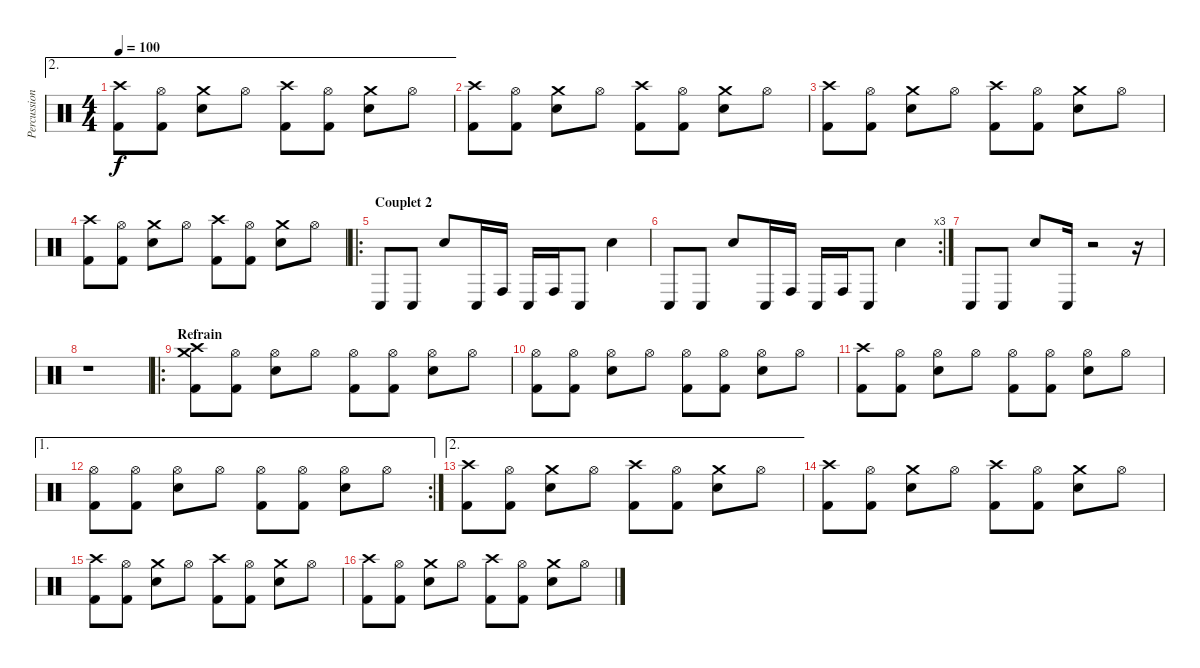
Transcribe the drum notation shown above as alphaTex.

\track ("Percussions" "Percussion") {instrument percussion}
\staff {score}
\articulation defaults
\ae 2
\ts (4 4)
\tempo 100
\clef neutral
\ks c
("Crash high (hit)" "Kick (hit) 2").8{dy f} ("Hi-Hat (open)" "Kick (hit) 2").8 ("Crash medium (hit)" "Electric Snare (hit)").8 "Hi-Hat (open)".8 ("Crash high (hit)" "Kick (hit) 2").8 ("Hi-Hat (open)" "Kick (hit) 2").8 ("Crash medium (hit)" "Electric Snare (hit)").8 "Hi-Hat (open)".8 |
("Crash high (hit)" "Kick (hit) 2").8 ("Hi-Hat (open)" "Kick (hit) 2").8 ("Crash medium (hit)" "Electric Snare (hit)").8 "Hi-Hat (open)".8 ("Crash high (hit)" "Kick (hit) 2").8 ("Hi-Hat (open)" "Kick (hit) 2").8 ("Crash medium (hit)" "Electric Snare (hit)").8 "Hi-Hat (open)".8 |
("Crash high (hit)" "Kick (hit) 2").8 ("Hi-Hat (open)" "Kick (hit) 2").8 ("Crash medium (hit)" "Electric Snare (hit)").8 "Hi-Hat (open)".8 ("Crash high (hit)" "Kick (hit) 2").8 ("Hi-Hat (open)" "Kick (hit) 2").8 ("Crash medium (hit)" "Electric Snare (hit)").8 "Hi-Hat (open)".8 |
("Crash high (hit)" "Kick (hit) 2").8 ("Hi-Hat (open)" "Kick (hit) 2").8 ("Crash medium (hit)" "Electric Snare (hit)").8 "Hi-Hat (open)".8 ("Crash high (hit)" "Kick (hit) 2").8 ("Hi-Hat (open)" "Kick (hit) 2").8 ("Crash medium (hit)" "Electric Snare (hit)").8 "Hi-Hat (open)".8 |
\ro
\section ("" "Couplet 2 ")
"Conga low (hit)".8{volume 8} "Conga low (hit)".8 "Electric Snare (hit)".8 "Conga low (hit)".16 "Conga high (hit)".16 "Conga low (hit)".16 "Conga high (hit)".16 "Conga low (hit)".8 "Electric Snare (hit)".4 |
\rc 3 "Conga low (hit)".8 "Conga low (hit)".8 "Electric Snare (hit)".8 "Conga low (hit)".16 "Conga high (hit)".16 "Conga low (hit)".16 "Conga high (hit)".16 "Conga low (hit)".8 "Electric Snare (hit)".4
|
"Conga low (hit)".8 "Conga low (hit)".8 "Electric Snare (hit)".8 "Conga low (hit)".16 r.2 r.16 |
r.1 |
\ro
\section ("" "Refrain")
("Crash high (hit)" "Crash medium (hit)" "Kick (hit) 2").8{volume 13} ("Hi-Hat (open)" "Kick (hit) 2").8 ("Hi-Hat (open)" "Electric Snare (hit)").8 "Hi-Hat (open)".8 ("Hi-Hat (open)" "Kick (hit) 2").8 ("Hi-Hat (open)" "Kick (hit) 2").8 ("Hi-Hat (open)" "Electric Snare (hit)").8 "Hi-Hat (open)".8 |
("Hi-Hat (open)" "Kick (hit) 2").8 ("Hi-Hat (open)" "Kick (hit) 2").8 ("Hi-Hat (open)" "Electric Snare (hit)").8 "Hi-Hat (open)".8 ("Hi-Hat (open)" "Kick (hit) 2").8 ("Hi-Hat (open)" "Kick (hit) 2").8 ("Hi-Hat (open)" "Electric Snare (hit)").8 "Hi-Hat (open)".8 |
("Crash high (hit)" "Kick (hit) 2").8 ("Hi-Hat (open)" "Kick (hit) 2").8 ("Hi-Hat (open)" "Electric Snare (hit)").8 "Hi-Hat (open)".8 ("Hi-Hat (open)" "Kick (hit) 2").8 ("Hi-Hat (open)" "Kick (hit) 2").8 ("Hi-Hat (open)" "Electric Snare (hit)").8 "Hi-Hat (open)".8 |
\ae 1
\rc 2
("Hi-Hat (open)" "Kick (hit) 2").8 ("Hi-Hat (open)" "Kick (hit) 2").8 ("Hi-Hat (open)" "Electric Snare (hit)").8 "Hi-Hat (open)".8 ("Hi-Hat (open)" "Kick (hit) 2").8 ("Hi-Hat (open)" "Kick (hit) 2").8 ("Hi-Hat (open)" "Electric Snare (hit)").8 "Hi-Hat (open)".8 |
\ae 2
("Crash high (hit)" "Kick (hit) 2").8 ("Hi-Hat (open)" "Kick (hit) 2").8 ("Crash medium (hit)" "Electric Snare (hit)").8 "Hi-Hat (open)".8 ("Crash high (hit)" "Kick (hit) 2").8 ("Hi-Hat (open)" "Kick (hit) 2").8 ("Crash medium (hit)" "Electric Snare (hit)").8 "Hi-Hat (open)".8 |
("Crash high (hit)" "Kick (hit) 2").8 ("Hi-Hat (open)" "Kick (hit) 2").8 ("Crash medium (hit)" "Electric Snare (hit)").8 "Hi-Hat (open)".8 ("Crash high (hit)" "Kick (hit) 2").8 ("Hi-Hat (open)" "Kick (hit) 2").8 ("Crash medium (hit)" "Electric Snare (hit)").8 "Hi-Hat (open)".8 |
("Crash high (hit)" "Kick (hit) 2").8 ("Hi-Hat (open)" "Kick (hit) 2").8 ("Crash medium (hit)" "Electric Snare (hit)").8 "Hi-Hat (open)".8 ("Crash high (hit)" "Kick (hit) 2").8 ("Hi-Hat (open)" "Kick (hit) 2").8 ("Crash medium (hit)" "Electric Snare (hit)").8 "Hi-Hat (open)".8 |
("Crash high (hit)" "Kick (hit) 2").8 ("Hi-Hat (open)" "Kick (hit) 2").8 ("Crash medium (hit)" "Electric Snare (hit)").8 "Hi-Hat (open)".8 ("Crash high (hit)" "Kick (hit) 2").8 ("Hi-Hat (open)" "Kick (hit) 2").8 ("Crash medium (hit)" "Electric Snare (hit)").8 "Hi-Hat (open)".8
